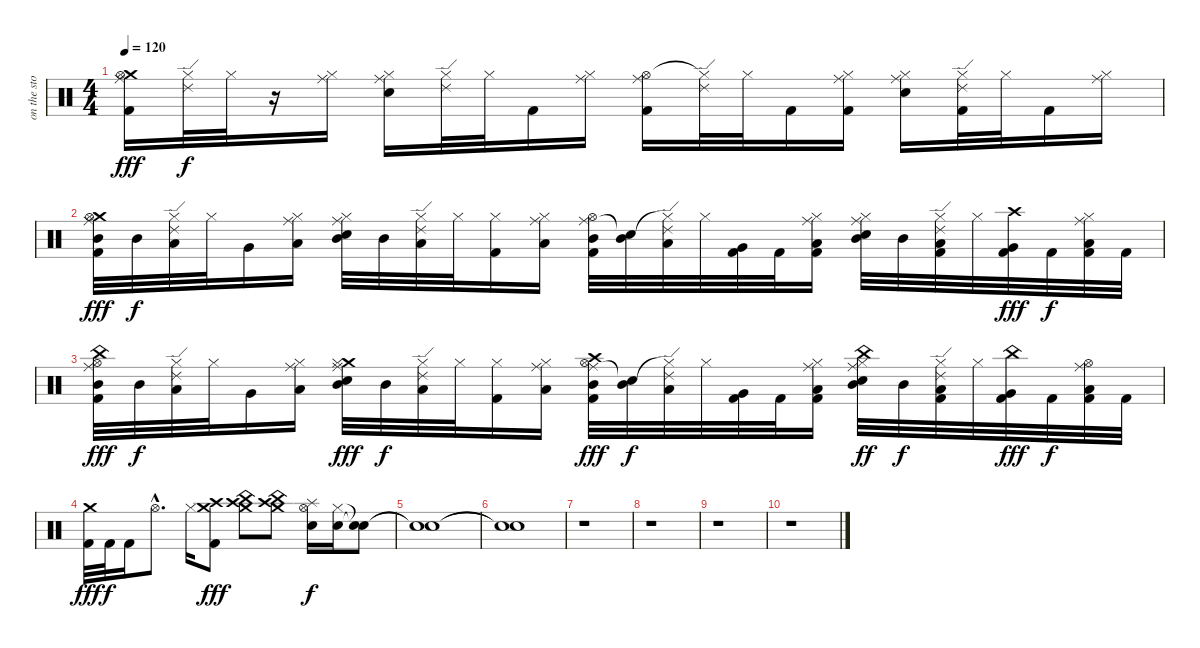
\track ("on the storm" "on the sto") {instrument percussion}
\staff {score}
\articulation defaults
\ts (4 4)
\tempo 120
\clef neutral
\ks c
("Ride (middle)" "Crash medium (hit)" "Hi-Hat (open)" "Kick (hit) 2").16{dy fff} ("Ride (edge) 2" "Hi-Hat (closed)").32{dy f} "Hi-Hat (closed)".32 r.16 ("Ride (middle)" "Hi-Hat (closed)").16 ("Ride (middle)" "Hi-Hat (closed)" "Electric Snare (hit)").16 ("Ride (edge) 2" "Hi-Hat (closed)").32 "Hi-Hat (closed)".32 "Kick (hit) 2".16 ("Ride (middle)" "Hi-Hat (closed)").16 ("Ride (middle)" "Hi-Hat (open)" "Kick (hit) 2").16 ("Ride (edge) 2" "Hi-Hat (closed)"{t}).32 "Hi-Hat (closed)".32 "Kick (hit) 2".16 ("Ride (middle)" "Hi-Hat (closed)" "Kick (hit) 2").16 ("Ride (middle)" "Hi-Hat (closed)" "Electric Snare (hit)").16 ("Ride (edge) 2" "Hi-Hat (closed)" "Kick (hit) 2").32 "Hi-Hat (closed)".32 "Kick (hit) 2".16 ("Ride (middle)" "Hi-Hat (closed)").16 |
("Ride (middle)" "Crash medium (hit)" "Hi-Hat (open)" "Mid Tom (hit)" "Kick (hit) 2").32{dy fff} "Mid Tom (hit)".32{dy f} ("Ride (edge) 2" "Hi-Hat (closed)" "Low Tom (hit)").32 "Hi-Hat (closed)".32 "Very Low Tom (hit)".16 ("Ride (middle)" "Hi-Hat (closed)" "Low Floor Tom (hit)").16 ("Ride (middle)" "Hi-Hat (closed)" "Mid Tom (hit)" "Electric Snare (hit)").32 "Mid Tom (hit)".32 ("Ride (edge) 2" "Hi-Hat (closed)" "Low Tom (hit)").32 "Hi-Hat (closed)".32 ("Hi-Hat (closed)" "Kick (hit) 2").16 ("Ride (middle)" "Hi-Hat (closed)" "Low Floor Tom (hit)").16 ("Ride (middle)" "Hi-Hat (open)" "Mid Tom (hit)" "Kick (hit) 2").32 ("Snare (hit)"{t} "Mid Tom (hit)").32 ("Ride (edge) 2" "Hi-Hat (closed)"{t} "Low Tom (hit)").32 "Hi-Hat (closed)".32 ("Very Low Tom (hit)" "Kick (hit) 2").32 "Kick (hit) 2".32 ("Ride (middle)" "Hi-Hat (closed)" "Low Floor Tom (hit)" "Kick (hit) 2").16 ("Ride (middle)" "Hi-Hat (closed)" "Mid Tom (hit)" "Electric Snare (hit)").32 "Mid Tom (hit)".32 ("Ride (edge) 2" "Hi-Hat (closed)" "Low Tom (hit)" "Kick (hit) 2").32 "Hi-Hat (closed)".32 ("Crash high (hit)" "Very Low Tom (hit)" "Kick (hit) 2").32{dy fff} "Kick (hit) 2".32{dy f} ("Ride (middle)" "Hi-Hat (closed)" "Low Floor Tom (hit)" "Kick (hit) 2").32 "Kick (hit) 2".32 |
("Ride (middle)" "China (hit)" "Hi-Hat (open)" "Mid Tom (hit)" "Kick (hit) 2").32{dy fff} "Mid Tom (hit)".32{dy f} ("Ride (edge) 2" "Hi-Hat (closed)" "Low Tom (hit)").32 "Hi-Hat (closed)".32 "Very Low Tom (hit)".16 ("Ride (middle)" "Hi-Hat (closed)" "Low Floor Tom (hit)").16 ("Ride (middle)" "Crash medium (hit)" "Hi-Hat (closed)" "Mid Tom (hit)" "Electric Snare (hit)").32{dy fff} "Mid Tom (hit)".32{dy f} ("Ride (edge) 2" "Hi-Hat (closed)" "Low Tom (hit)").32 "Hi-Hat (closed)".32 ("Hi-Hat (closed)" "Kick (hit) 2").16 ("Ride (middle)" "Hi-Hat (closed)" "Low Floor Tom (hit)").16 ("Ride (middle)" "Crash high (hit)" "Hi-Hat (open)" "Mid Tom (hit)" "Kick (hit) 2").32{dy fff} ("Snare (hit)"{t} "Mid Tom (hit)").32{dy f} ("Ride (edge) 2" "Hi-Hat (closed)"{t} "Low Tom (hit)").32 "Hi-Hat (closed)".32 ("Very Low Tom (hit)" "Kick (hit) 2").32 "Kick (hit) 2".32 ("Ride (middle)" "Hi-Hat (closed)" "Low Floor Tom (hit)" "Kick (hit) 2").16 ("Ride (middle)" "China (hit)" "Hi-Hat (closed)" "Mid Tom (hit)" "Electric Snare (hit)").32{dy ff} "Mid Tom (hit)".32{dy f} ("Ride (edge) 2" "Hi-Hat (closed)" "Low Tom (hit)" "Kick (hit) 2").32 "Hi-Hat (closed)".32 ("China (hit)" "Very Low Tom (hit)" "Kick (hit) 2").32{dy fff} "Kick (hit) 2".32{dy f} ("Ride (middle)" "Hi-Hat (open)" "Low Floor Tom (hit)" "Kick (hit) 2").32 "Kick (hit) 2".32 |
("Crash medium (hit)" "Kick (hit) 2").32{dy fff} "Kick (hit) 2".32{dy f} "Kick (hit) 2".16 "Hi-Hat (open)"{hac}.8{d} "Hi-Hat (closed)".16 ("Crash high (hit)" "Crash medium (hit)" "Kick (hit) 2").8{dy fff} ("China (hit)" "Crash high (hit)" "Crash medium (hit)").8 ("China (hit)" "Crash high (hit)" "Crash medium (hit)").8 ("Splash (hit)" "Hi-Hat (open)" "Electric Snare (hit)").16{dy f} ("Hi-Hat (closed)" "Electric Snare (hit)").16 ("Snare (hit)"{t} "Snare (hit)"{t}).8 |
("Snare (hit)"{t} "Snare (hit)"{t}).1 |
("Snare (hit)"{t} "Snare (hit)"{t}).1 |
r.1 |
r.1 |
r.1 |
r.1
